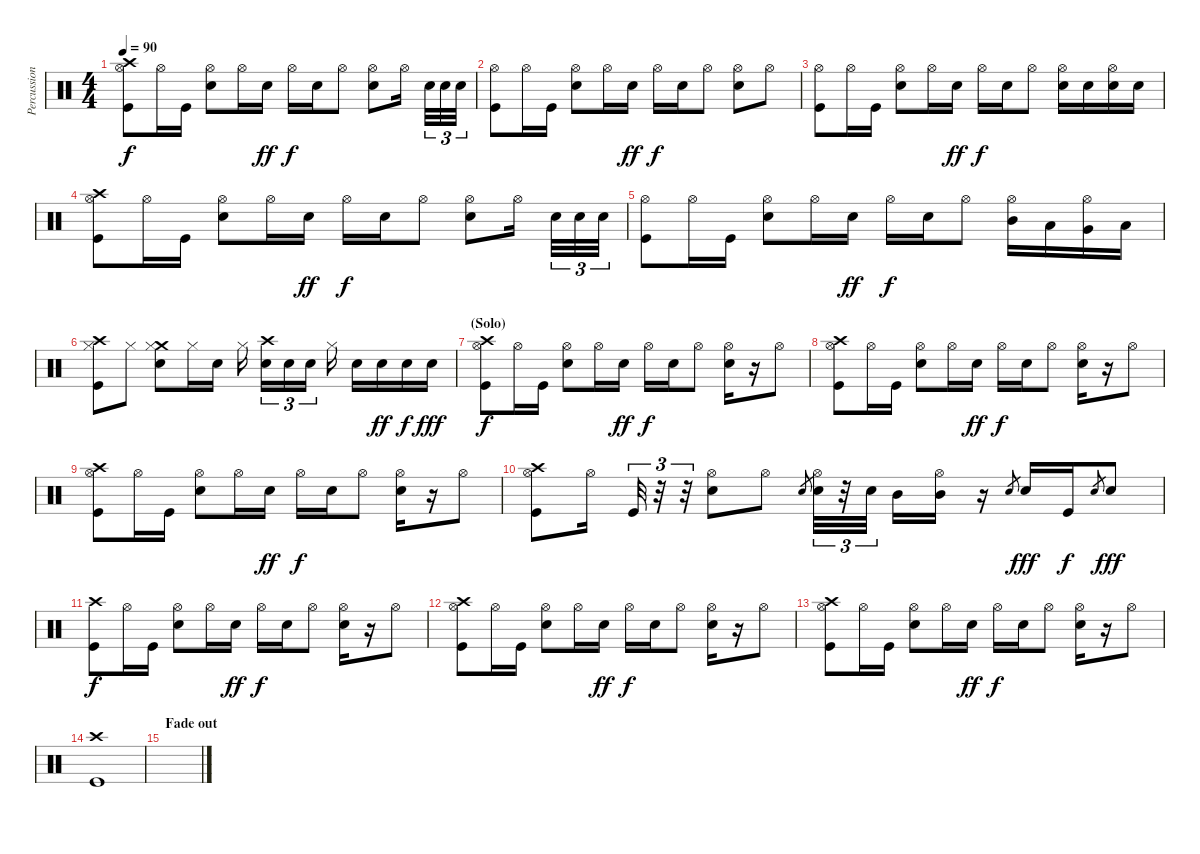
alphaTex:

\track ("Percussions" "Percussion") {instrument percussion}
\staff {score}
\articulation defaults
\ts (4 4)
\tempo 90
\clef neutral
\ks c
("Hi-Hat (open)" "Crash high (hit)" "Kick (hit)").8{dy f} "Hi-Hat (open)".16 "Kick (hit)".16 ("Hi-Hat (open)" "Snare (hit) 2").8 "Hi-Hat (open)".16 "Snare (hit) 2".16{dy ff} "Hi-Hat (open)".16{dy f} "Snare (hit) 2".16 "Hi-Hat (open)".8 ("Hi-Hat (open)" "Snare (hit) 2").8 "Hi-Hat (open)".16 "Snare (hit) 2".32{tu (3 2)} "Snare (hit) 2".32{tu (3 2)} "Snare (hit) 2".32{tu (3 2)} |
("Hi-Hat (open)" "Kick (hit)").8 "Hi-Hat (open)".16 "Kick (hit)".16 ("Hi-Hat (open)" "Snare (hit) 2").8 "Hi-Hat (open)".16 "Snare (hit) 2".16{dy ff} "Hi-Hat (open)".16{dy f} "Snare (hit) 2".16 "Hi-Hat (open)".8 ("Hi-Hat (open)" "Snare (hit) 2").8 "Hi-Hat (open)".8 |
("Hi-Hat (open)" "Kick (hit)").8 "Hi-Hat (open)".16 "Kick (hit)".16 ("Hi-Hat (open)" "Snare (hit) 2").8 "Hi-Hat (open)".16 "Snare (hit) 2".16{dy ff} "Hi-Hat (open)".16{dy f} "Snare (hit) 2".16 "Hi-Hat (open)".8 ("Hi-Hat (open)" "Snare (hit) 2").16 "Snare (hit) 2".16 ("Hi-Hat (open)" "Snare (hit) 2").16 "Snare (hit) 2".16 |
("Hi-Hat (open)" "Crash high (hit)" "Kick (hit)").8 "Hi-Hat (open)".16 "Kick (hit)".16 ("Hi-Hat (open)" "Snare (hit) 2").8 "Hi-Hat (open)".16 "Snare (hit) 2".16{dy ff} "Hi-Hat (open)".16{dy f} "Snare (hit) 2".16 "Hi-Hat (open)".8 ("Hi-Hat (open)" "Snare (hit) 2").8 "Hi-Hat (open)".16 "Snare (hit) 2".32{tu (3 2)} "Snare (hit) 2".32{tu (3 2)} "Snare (hit) 2".32{tu (3 2)} |
("Hi-Hat (open)" "Kick (hit)").8 "Hi-Hat (open)".16 "Kick (hit)".16 ("Hi-Hat (open)" "Snare (hit) 2").8 "Hi-Hat (open)".16 "Snare (hit) 2".16{dy ff} "Hi-Hat (open)".16{dy f} "Snare (hit) 2".16 "Hi-Hat (open)".8 ("Hi-Hat (open)" "Mid Tom (hit)").16 "Low Tom (hit)".16 ("Hi-Hat (open)" "Very Low Tom (hit)").16 "Low Floor Tom (hit)".16 |
("Crash high (hit)" "Hi-Hat (closed)" "Kick (hit)").8 "Hi-Hat (closed)".8 ("Crash medium (hit)" "Hi-Hat (closed)" "Snare (hit) 2").8 "Hi-Hat (closed)".16 "Snare (hit) 2".16 "Hi-Hat (closed)".16 ("Crash high (hit)" "Snare (hit) 2").16{tu (3 2)} "Snare (hit) 2".16{tu (3 2)} "Snare (hit) 2".16{tu (3 2)} "Hi-Hat (closed)".16 "Snare (hit) 2".16 "Snare (hit) 2".16{dy ff} "Snare (hit) 2".16{dy f} "Snare (hit) 2".16{dy fff} |
\section ("" "(Solo)")
("Hi-Hat (open)" "Crash high (hit)" "Kick (hit)").8{dy f} "Hi-Hat (open)".16 "Kick (hit)".16 ("Hi-Hat (open)" "Snare (hit) 2").8 "Hi-Hat (open)".16 "Snare (hit) 2".16{dy ff} "Hi-Hat (open)".16{dy f} "Snare (hit) 2".16 "Hi-Hat (open)".8 ("Hi-Hat (open)" "Snare (hit) 2").16 r.16 "Hi-Hat (open)".8 |
("Hi-Hat (open)" "Crash high (hit)" "Kick (hit)").8 "Hi-Hat (open)".16 "Kick (hit)".16 ("Hi-Hat (open)" "Snare (hit) 2").8 "Hi-Hat (open)".16 "Snare (hit) 2".16{dy ff} "Hi-Hat (open)".16{dy f} "Snare (hit) 2".16 "Hi-Hat (open)".8 ("Hi-Hat (open)" "Snare (hit) 2").16 r.16 "Hi-Hat (open)".8 |
("Hi-Hat (open)" "Crash high (hit)" "Kick (hit)").8 "Hi-Hat (open)".16 "Kick (hit)".16 ("Hi-Hat (open)" "Snare (hit) 2").8 "Hi-Hat (open)".16 "Snare (hit) 2".16{dy ff} "Hi-Hat (open)".16{dy f} "Snare (hit) 2".16 "Hi-Hat (open)".8 ("Hi-Hat (open)" "Snare (hit) 2").16 r.16 "Hi-Hat (open)".8 |
("Hi-Hat (open)" "Crash high (hit)" "Kick (hit)").8 "Hi-Hat (open)".16 "Kick (hit)".32{tu (3 2)} r.32{tu (3 2)} r.32{tu (3 2)} ("Hi-Hat (open)" "Snare (hit) 2").8 "Hi-Hat (open)".8 "Snare (hit) 2".8{gr} ("Hi-Hat (open)" "Snare (hit) 2").32{tu (3 2)} r.32{tu (3 2)} "Snare (hit) 2".32{tu (3 2)} "Mid Tom (hit)".16 ("Hi-Hat (open)" "Mid Tom (hit)").16 r.16 "Snare (hit) 2".8{gr} "Snare (hit) 2".16{dy fff} "Kick (hit)".16{dy f} "Snare (hit) 2".8{gr} "Snare (hit) 2".8{dy fff} |
("Crash high (hit)" "Kick (hit)").8{dy f} "Hi-Hat (open)".16 "Kick (hit)".16 ("Hi-Hat (open)" "Snare (hit) 2").8 "Hi-Hat (open)".16 "Snare (hit) 2".16{dy ff} "Hi-Hat (open)".16{dy f} "Snare (hit) 2".16 "Hi-Hat (open)".8 ("Hi-Hat (open)" "Snare (hit) 2").16 r.16 "Hi-Hat (open)".8 |
("Hi-Hat (open)" "Crash high (hit)" "Kick (hit)").8 "Hi-Hat (open)".16 "Kick (hit)".16 ("Hi-Hat (open)" "Snare (hit) 2").8 "Hi-Hat (open)".16 "Snare (hit) 2".16{dy ff} "Hi-Hat (open)".16{dy f} "Snare (hit) 2".16 "Hi-Hat (open)".8 ("Hi-Hat (open)" "Snare (hit) 2").16 r.16 "Hi-Hat (open)".8 |
("Hi-Hat (open)" "Crash high (hit)" "Kick (hit)").8 "Hi-Hat (open)".16 "Kick (hit)".16 ("Hi-Hat (open)" "Snare (hit) 2").8 "Hi-Hat (open)".16 "Snare (hit) 2".16{dy ff} "Hi-Hat (open)".16{dy f} "Snare (hit) 2".16 "Hi-Hat (open)".8 ("Hi-Hat (open)" "Snare (hit) 2").16 r.16 "Hi-Hat (open)".8 |
("Crash high (hit)" "Kick (hit)").1 |
\section ("" "Fade out")
